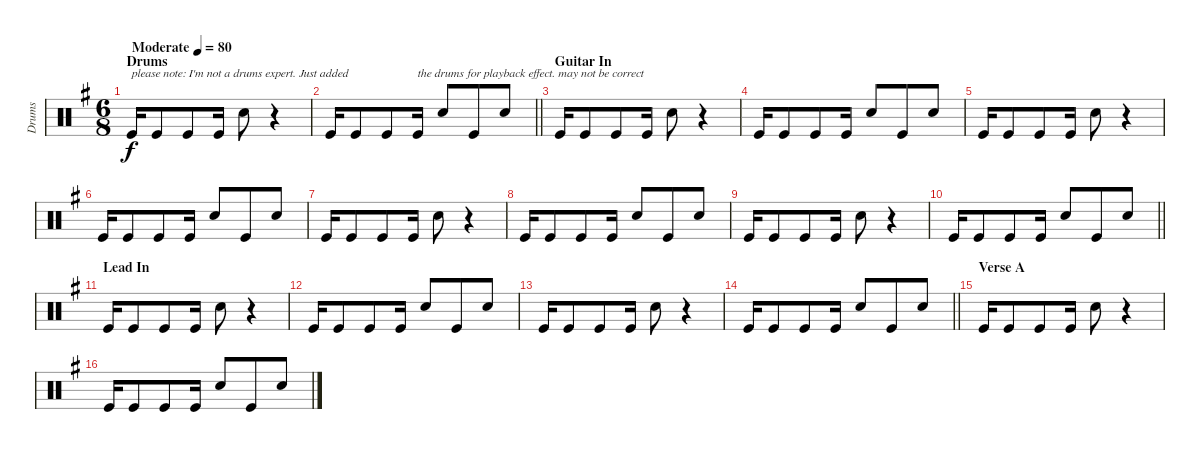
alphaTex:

\track ("Drums" "Drums") {instrument percussion}
\staff {score}
\articulation defaults
\ts (6 8)
\section ("" "Drums")
\tempo (80 "Moderate")
\clef neutral
\ks eminor "Kick (hit)".16{txt "please note: I'm not a drums expert. Just added" dy f} "Kick (hit)".8 "Kick (hit)".8 "Kick (hit)".16 "Snare (hit) 2".8
r.4 |
\barLineRight lightlight "Kick (hit)".16 "Kick (hit)".8 "Kick (hit)".8 "Kick (hit)".16{txt "the drums for playback effect. may not be correct"} "Snare (hit) 2".8 "Kick (hit)".8 "Snare (hit) 2".8
|
\section ("" "Guitar In")
"Kick (hit)".16 "Kick (hit)".8 "Kick (hit)".8 "Kick (hit)".16 "Snare (hit) 2".8 r.4 |
"Kick (hit)".16 "Kick (hit)".8 "Kick (hit)".8 "Kick (hit)".16 "Snare (hit) 2".8 "Kick (hit)".8 "Snare (hit) 2".8 |
"Kick (hit)".16 "Kick (hit)".8 "Kick (hit)".8 "Kick (hit)".16 "Snare (hit) 2".8 r.4 |
"Kick (hit)".16 "Kick (hit)".8 "Kick (hit)".8 "Kick (hit)".16 "Snare (hit) 2".8 "Kick (hit)".8 "Snare (hit) 2".8 |
"Kick (hit)".16 "Kick (hit)".8 "Kick (hit)".8 "Kick (hit)".16 "Snare (hit) 2".8 r.4 |
"Kick (hit)".16 "Kick (hit)".8 "Kick (hit)".8 "Kick (hit)".16 "Snare (hit) 2".8 "Kick (hit)".8 "Snare (hit) 2".8 |
"Kick (hit)".16 "Kick (hit)".8 "Kick (hit)".8 "Kick (hit)".16 "Snare (hit) 2".8 r.4 |
\barLineRight lightlight "Kick (hit)".16 "Kick (hit)".8 "Kick (hit)".8 "Kick (hit)".16 "Snare (hit) 2".8 "Kick (hit)".8 "Snare (hit) 2".8
|
\section ("" "Lead In")
"Kick (hit)".16 "Kick (hit)".8 "Kick (hit)".8 "Kick (hit)".16 "Snare (hit) 2".8 r.4 |
"Kick (hit)".16 "Kick (hit)".8 "Kick (hit)".8 "Kick (hit)".16 "Snare (hit) 2".8 "Kick (hit)".8 "Snare (hit) 2".8 |
"Kick (hit)".16 "Kick (hit)".8 "Kick (hit)".8 "Kick (hit)".16 "Snare (hit) 2".8 r.4 |
\barLineRight lightlight "Kick (hit)".16 "Kick (hit)".8 "Kick (hit)".8 "Kick (hit)".16 "Snare (hit) 2".8 "Kick (hit)".8 "Snare (hit) 2".8
|
\section ("" "Verse A")
"Kick (hit)".16 "Kick (hit)".8 "Kick (hit)".8 "Kick (hit)".16 "Snare (hit) 2".8 r.4 |
"Kick (hit)".16 "Kick (hit)".8 "Kick (hit)".8 "Kick (hit)".16 "Snare (hit) 2".8 "Kick (hit)".8 "Snare (hit) 2".8
